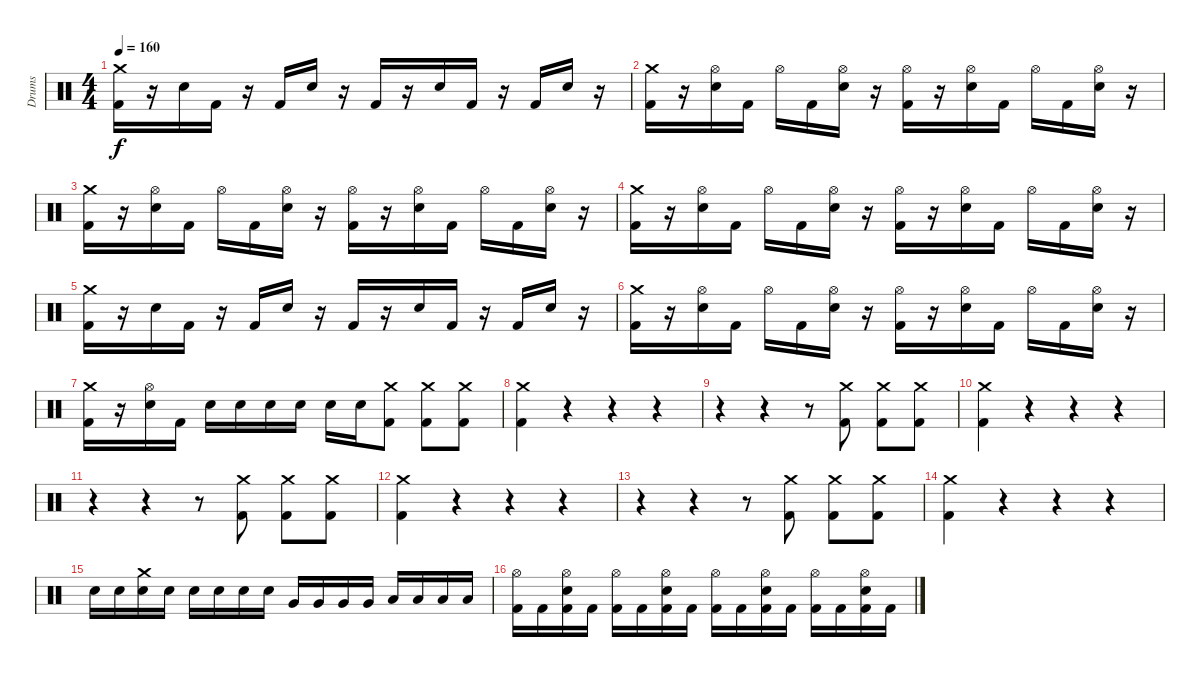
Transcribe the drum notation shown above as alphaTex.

\track ("Drums" "Drums") {instrument percussion}
\staff {score}
\articulation defaults
\ts (4 4)
\tempo 160
\clef neutral
\ks c
("Crash medium (hit)" "Kick (hit) 2").16{dy f} r.16 "Snare (hit) 2".16 "Kick (hit) 2".16 r.16 "Kick (hit) 2".16 "Snare (hit) 2".16 r.16 "Kick (hit) 2".16 r.16 "Snare (hit) 2".16 "Kick (hit) 2".16 r.16 "Kick (hit) 2".16 "Snare (hit) 2".16 r.16 |
("Crash medium (hit)" "Kick (hit) 2").16 r.16 ("Snare (hit) 2" "Hi-Hat (open)").16 "Kick (hit) 2".16 "Hi-Hat (open)".16 "Kick (hit) 2".16 ("Snare (hit) 2" "Hi-Hat (open)").16 r.16 ("Hi-Hat (open)" "Kick (hit) 2").16 r.16 ("Snare (hit) 2" "Hi-Hat (open)").16 "Kick (hit) 2".16 "Hi-Hat (open)".16 "Kick (hit) 2".16 ("Snare (hit) 2" "Hi-Hat (open)").16 r.16 |
("Crash medium (hit)" "Kick (hit) 2").16 r.16 ("Snare (hit) 2" "Hi-Hat (open)").16 "Kick (hit) 2".16 "Hi-Hat (open)".16 "Kick (hit) 2".16 ("Snare (hit) 2" "Hi-Hat (open)").16 r.16 ("Hi-Hat (open)" "Kick (hit) 2").16 r.16 ("Snare (hit) 2" "Hi-Hat (open)").16 "Kick (hit) 2".16 "Hi-Hat (open)".16 "Kick (hit) 2".16 ("Snare (hit) 2" "Hi-Hat (open)").16 r.16 |
("Crash medium (hit)" "Kick (hit) 2").16 r.16 ("Snare (hit) 2" "Hi-Hat (open)").16 "Kick (hit) 2".16 "Hi-Hat (open)".16 "Kick (hit) 2".16 ("Snare (hit) 2" "Hi-Hat (open)").16 r.16 ("Hi-Hat (open)" "Kick (hit) 2").16 r.16 ("Snare (hit) 2" "Hi-Hat (open)").16 "Kick (hit) 2".16 "Hi-Hat (open)".16 "Kick (hit) 2".16 ("Snare (hit) 2" "Hi-Hat (open)").16 r.16 |
("Crash medium (hit)" "Kick (hit) 2").16 r.16 "Snare (hit) 2".16 "Kick (hit) 2".16 r.16 "Kick (hit) 2".16 "Snare (hit) 2".16 r.16 "Kick (hit) 2".16 r.16 "Snare (hit) 2".16 "Kick (hit) 2".16 r.16 "Kick (hit) 2".16 "Snare (hit) 2".16 r.16 |
("Crash medium (hit)" "Kick (hit) 2").16 r.16 ("Snare (hit) 2" "Hi-Hat (open)").16 "Kick (hit) 2".16 "Hi-Hat (open)".16 "Kick (hit) 2".16 ("Snare (hit) 2" "Hi-Hat (open)").16 r.16 ("Hi-Hat (open)" "Kick (hit) 2").16 r.16 ("Snare (hit) 2" "Hi-Hat (open)").16 "Kick (hit) 2".16 "Hi-Hat (open)".16 "Kick (hit) 2".16 ("Snare (hit) 2" "Hi-Hat (open)").16 r.16 |
("Crash medium (hit)" "Kick (hit) 2").16 r.16 ("Snare (hit) 2" "Hi-Hat (open)").16 "Kick (hit) 2".16 "Snare (hit) 2".16 "Snare (hit) 2".16 "Snare (hit) 2".16 "Snare (hit) 2".16 "Snare (hit) 2".16 "Snare (hit) 2".16 ("Crash medium (hit)" "Kick (hit) 2").8 ("Crash medium (hit)" "Kick (hit) 2").8 ("Crash medium (hit)" "Kick (hit) 2").8 |
("Crash medium (hit)" "Kick (hit) 2").4 r.4 r.4 r.4 |
r.4 r.4 r.8 ("Crash medium (hit)" "Kick (hit) 2").8 ("Crash medium (hit)" "Kick (hit) 2").8 ("Crash medium (hit)" "Kick (hit) 2").8 |
("Crash medium (hit)" "Kick (hit) 2").4 r.4 r.4 r.4 |
r.4 r.4 r.8 ("Crash medium (hit)" "Kick (hit) 2").8 ("Crash medium (hit)" "Kick (hit) 2").8 ("Crash medium (hit)" "Kick (hit) 2").8 |
("Crash medium (hit)" "Kick (hit) 2").4 r.4 r.4 r.4 |
r.4 r.4 r.8 ("Crash medium (hit)" "Kick (hit) 2").8 ("Crash medium (hit)" "Kick (hit) 2").8 ("Crash medium (hit)" "Kick (hit) 2").8 |
("Crash medium (hit)" "Kick (hit) 2").4 r.4 r.4 r.4 |
"Snare (hit) 2".16 "Snare (hit) 2".16 ("Snare (hit) 2" "Crash medium (hit)").16 "Snare (hit) 2".16 "Snare (hit) 2".16 "Snare (hit) 2".16 "Snare (hit) 2".16 "Snare (hit) 2".16 "Very Low Tom (hit)".16 "Very Low Tom (hit)".16 "Very Low Tom (hit)".16 "Very Low Tom (hit)".16 "Low Floor Tom (hit)".16 "Low Floor Tom (hit)".16 "Low Floor Tom (hit)".16 "Low Floor Tom (hit)".16 |
("Hi-Hat (open)" "Kick (hit) 2").16 "Kick (hit) 2".16 ("Snare (hit) 2" "Hi-Hat (open)" "Kick (hit) 2").16 "Kick (hit) 2".16 ("Hi-Hat (open)" "Kick (hit) 2").16 "Kick (hit) 2".16 ("Snare (hit) 2" "Hi-Hat (open)" "Kick (hit) 2").16 "Kick (hit) 2".16 ("Hi-Hat (open)" "Kick (hit) 2").16 "Kick (hit) 2".16 ("Snare (hit) 2" "Hi-Hat (open)" "Kick (hit) 2").16 "Kick (hit) 2".16 ("Hi-Hat (open)" "Kick (hit) 2").16 "Kick (hit) 2".16 ("Snare (hit) 2" "Hi-Hat (open)" "Kick (hit) 2").16 "Kick (hit) 2".16
